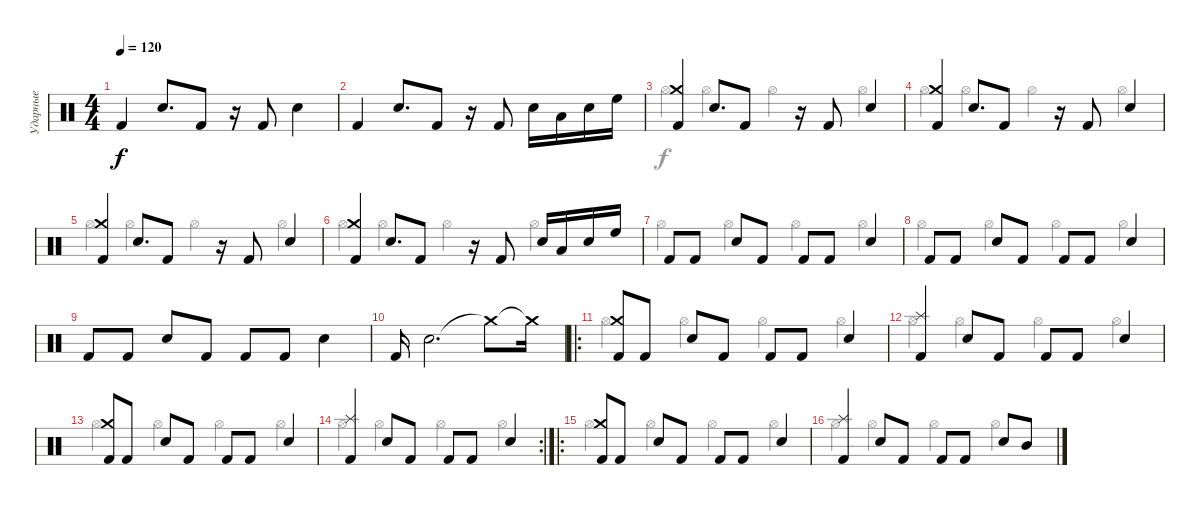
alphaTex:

\track ("Ударные" "Ударные") {instrument percussion}
\staff {score}
\articulation defaults
\voice
\ts (4 4)
\tempo 120
\clef neutral
\ks c "Kick (hit) 2".4{dy f} "Electric Snare (hit)".8{d} "Kick (hit) 2".8
r.16 "Kick (hit) 2".8 "Electric Snare (hit)".4 |
"Kick (hit) 2".4 "Electric Snare (hit)".8{d} "Kick (hit) 2".8 r.16 "Kick (hit) 2".8 "Electric Snare (hit)".16 "Low Tom (hit)".16 "Electric Snare (hit)".16 "High Floor Tom (hit)".16 |
("Crash medium (hit)" "Kick (hit) 2").4 "Electric Snare (hit)".8{d} "Kick (hit) 2".8 r.16 "Kick (hit) 2".8 "Electric Snare (hit)".4 |
("Crash medium (hit)" "Kick (hit) 2").4 "Electric Snare (hit)".8{d} "Kick (hit) 2".8 r.16 "Kick (hit) 2".8 "Electric Snare (hit)".4 |
("Crash medium (hit)" "Kick (hit) 2").4 "Electric Snare (hit)".8{d} "Kick (hit) 2".8 r.16 "Kick (hit) 2".8 "Electric Snare (hit)".4 |
("Crash medium (hit)" "Kick (hit) 2").4 "Electric Snare (hit)".8{d} "Kick (hit) 2".8 r.16 "Kick (hit) 2".8 "Electric Snare (hit)".16 "Low Tom (hit)".16 "Electric Snare (hit)".16 "High Floor Tom (hit)".16 |
"Kick (hit) 2".8 "Kick (hit) 2".8 "Electric Snare (hit)".8 "Kick (hit) 2".8 "Kick (hit) 2".8 "Kick (hit) 2".8 "Electric Snare (hit)".4 |
"Kick (hit) 2".8 "Kick (hit) 2".8 "Electric Snare (hit)".8 "Kick (hit) 2".8 "Kick (hit) 2".8 "Kick (hit) 2".8 "Electric Snare (hit)".4 |
"Kick (hit) 2".8 "Kick (hit) 2".8 "Electric Snare (hit)".8 "Kick (hit) 2".8 "Kick (hit) 2".8 "Kick (hit) 2".8 "Electric Snare (hit)".4 |
"Kick (hit) 2".16 "Electric Snare (hit)".2{d} "Crash medium (hit)"{t}.8 "Crash medium (hit)"{t}.16 |
\ro
("Crash medium (hit)" "Kick (hit) 2").8 "Kick (hit) 2".8 "Electric Snare (hit)".8 "Kick (hit) 2".8 "Kick (hit) 2".8 "Kick (hit) 2".8 "Electric Snare (hit)".4 |
("Splash (hit)" "Kick (hit) 2").4 "Electric Snare (hit)".8 "Kick (hit) 2".8 "Kick (hit) 2".8 "Kick (hit) 2".8 "Electric Snare (hit)".4 |
("Crash medium (hit)" "Kick (hit) 2").8 "Kick (hit) 2".8 "Electric Snare (hit)".8 "Kick (hit) 2".8 "Kick (hit) 2".8 "Kick (hit) 2".8 "Electric Snare (hit)".4 |
\rc 2
("Splash (hit)" "Kick (hit) 2").4 "Electric Snare (hit)".8 "Kick (hit) 2".8 "Kick (hit) 2".8 "Kick (hit) 2".8 "Electric Snare (hit)".4 |
\ro
("Crash medium (hit)" "Kick (hit) 2").8 "Kick (hit) 2".8 "Electric Snare (hit)".8 "Kick (hit) 2".8 "Kick (hit) 2".8 "Kick (hit) 2".8 "Electric Snare (hit)".4 |
("Splash (hit)" "Kick (hit) 2").4 "Electric Snare (hit)".8 "Kick (hit) 2".8 "Kick (hit) 2".8 "Kick (hit) 2".8 "Electric Snare (hit)".8 "Mid Tom (hit)".8
\voice
\clef neutral
\ottava regular
\simile none
\ks c
|
|
"Hi-Hat (open)".4 "Hi-Hat (open)".4 "Hi-Hat (open)".4 "Hi-Hat (open)".4 |
"Hi-Hat (open)".4 "Hi-Hat (open)".4 "Hi-Hat (open)".4 "Hi-Hat (open)".4 |
"Hi-Hat (open)".4 "Hi-Hat (open)".4 "Hi-Hat (open)".4 "Hi-Hat (open)".4 |
"Hi-Hat (open)".4 "Hi-Hat (open)".4 "Hi-Hat (open)".4 "Hi-Hat (open)".4 |
"Hi-Hat (open)".4 "Hi-Hat (open)".4 "Hi-Hat (open)".4 "Hi-Hat (open)".4 |
"Hi-Hat (open)".4 "Hi-Hat (open)".4 "Hi-Hat (open)".4 "Hi-Hat (open)".4 |
|
|
"Hi-Hat (open)".4 "Hi-Hat (open)".4 "Hi-Hat (open)".4 "Hi-Hat (open)".4 |
"Hi-Hat (open)".4 "Hi-Hat (open)".4 "Hi-Hat (open)".4 "Hi-Hat (open)".4 |
"Hi-Hat (open)".4 "Hi-Hat (open)".4 "Hi-Hat (open)".4 "Hi-Hat (open)".4 |
"Hi-Hat (open)".4 "Hi-Hat (open)".4 "Hi-Hat (open)".4 "Hi-Hat (open)".4 |
"Hi-Hat (open)".4 "Hi-Hat (open)".4 "Hi-Hat (open)".4 "Hi-Hat (open)".4 |
"Hi-Hat (open)".4 "Hi-Hat (open)".4 "Hi-Hat (open)".4 "Hi-Hat (open)".4
